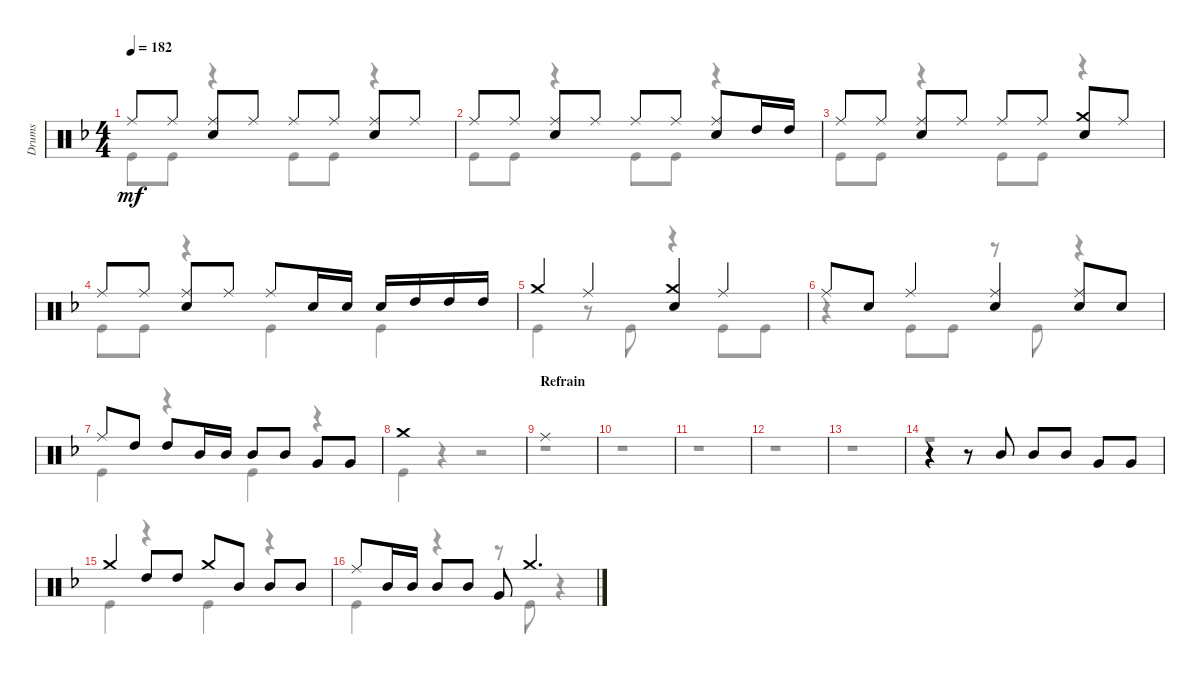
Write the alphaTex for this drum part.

\track ("Drums" "Drums") {instrument percussion}
\staff {score}
\articulation defaults
\voice
\ts (4 4)
\tempo 182
\clef neutral
\ks f "Ride (middle)".8{dy mf} "Ride (middle)".8
("Ride (middle)" "Snare (hit) 2").8 "Ride (middle)".8 "Ride (middle)".8 "Ride (middle)".8 ("Ride (middle)" "Snare (hit) 2").8 "Ride (middle)".8 |
"Ride (middle)".8 "Ride (middle)".8 ("Ride (middle)" "Snare (hit) 2").8 "Ride (middle)".8 "Ride (middle)".8 "Ride (middle)".8 ("Ride (middle)" "Snare (hit) 2").8 "High Tom (hit)".16 "High Tom (hit)".16 |
"Ride (middle)".8 "Ride (middle)".8 ("Ride (middle)" "Snare (hit) 2").8 "Ride (middle)".8 "Ride (middle)".8 "Ride (middle)".8 ("Snare (hit) 2" "Crash medium (hit)").8 "Ride (middle)".8 |
"Ride (middle)".8 "Ride (middle)".8 ("Ride (middle)" "Snare (hit) 2").8 "Ride (middle)".8 "Ride (middle)".8 "Snare (hit) 2".16 "Snare (hit) 2".16 "Snare (hit) 2".16 "High Tom (hit)".16 "High Tom (hit)".16 "High Tom (hit)".16 |
"Crash medium (hit)".4 "Ride (middle)".4 ("Crash medium (hit)" "Snare (hit) 2").4 "Ride (middle)".4 |
"Ride (middle)".8 "Snare (hit) 2".8 "Ride (middle)".4 ("Ride (middle)" "Snare (hit) 2").4 ("Ride (middle)" "Snare (hit) 2").8 "Snare (hit) 2".8 |
"Ride (middle)".8 "High Tom (hit)".8 "High Tom (hit)".8 "Mid Tom (hit)".16 "Mid Tom (hit)".16 "Mid Tom (hit)".8 "Mid Tom (hit)".8 "Very Low Tom (hit)".8 "Very Low Tom (hit)".8 |
"Crash medium (hit)".1 |
\section ("" "Refrain")
"Ride (middle)".1 |
|
|
|
|
r.4 r.8 "Mid Tom (hit)".8 "Mid Tom (hit)".8 "Mid Tom (hit)".8 "Very Low Tom (hit)".8 "Very Low Tom (hit)".8 |
"Crash medium (hit)".4 "High Tom (hit)".8 "High Tom (hit)".8 "Crash medium (hit)".8 "Mid Tom (hit)".8 "Mid Tom (hit)".8 "Mid Tom (hit)".8 |
"Ride (middle)".8 "Mid Tom (hit)".16 "Mid Tom (hit)".16 "Mid Tom (hit)".8 "Mid Tom (hit)".8 "Very Low Tom (hit)".8 "Crash medium (hit)".4{d}
\voice
\clef neutral
\ottava regular
\simile none
\ks f "Kick (hit)".8{dy mf} "Kick (hit)".8
r.4 "Kick (hit)".8 "Kick (hit)".8 r.4 |
"Kick (hit)".8 "Kick (hit)".8 r.4 "Kick (hit)".8 "Kick (hit)".8 r.4 |
"Kick (hit)".8 "Kick (hit)".8 r.4 "Kick (hit)".8 "Kick (hit)".8 r.4 |
"Kick (hit)".8 "Kick (hit)".8 r.4 "Kick (hit)".4 "Kick (hit)".4 |
"Kick (hit)".4 r.8 "Kick (hit)".8 r.4 "Kick (hit)".8 "Kick (hit)".8 |
r.4 "Kick (hit)".8 "Kick (hit)".8 r.8 "Kick (hit)".8 r.4 |
"Kick (hit)".4 r.4 "Kick (hit)".4 r.4 |
"Kick (hit)".4 r.4 r.2 |
r.1 |
r.1 |
r.1 |
r.1 |
r.1 |
r.1 |
"Kick (hit)".4 r.4 "Kick (hit)".4 r.4 |
"Kick (hit)".4 r.4 r.8 "Kick (hit)".8 r.4
